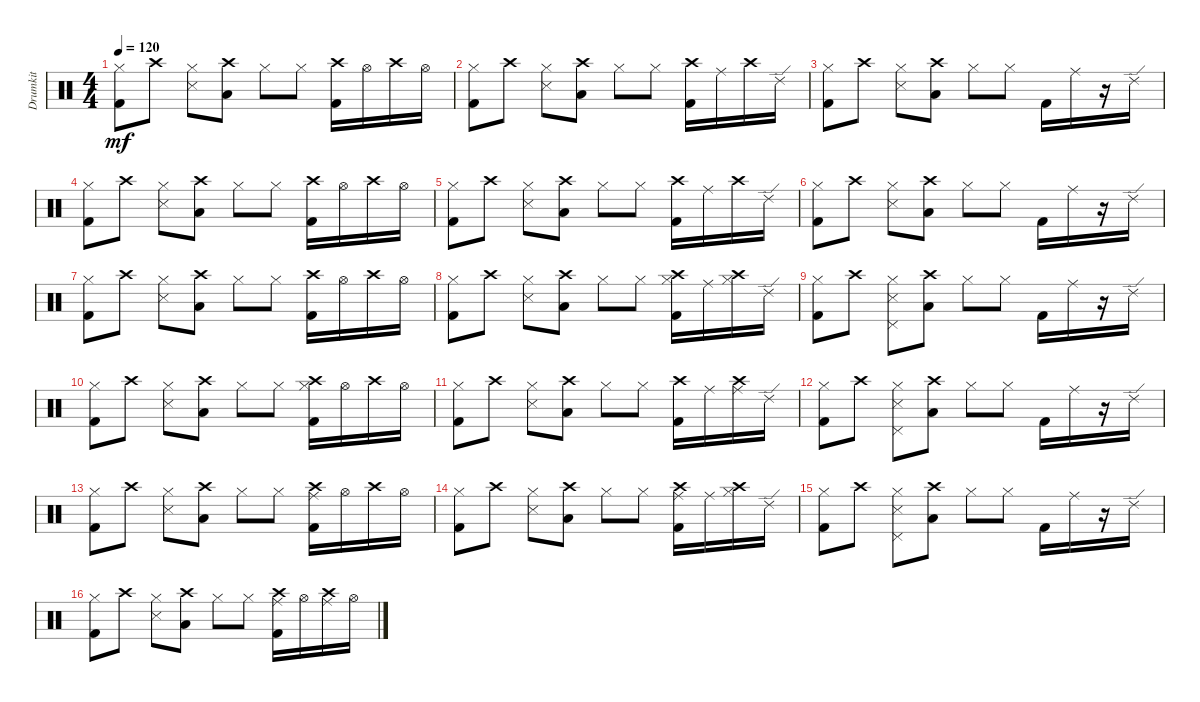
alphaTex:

\track ("Drumkit" "Drumkit") {instrument percussion}
\staff {score}
\articulation defaults
\ts (4 4)
\tempo 120
\clef neutral
\ks c
("Hi-Hat (closed)" "Kick (hit) 2").8{dy mf} "Crash high (hit)".8 ("Hi-Hat (closed)" "Snare (side stick) 3").8 ("Crash high (hit)" "Low Floor Tom (hit)").8 "Hi-Hat (closed)".8 "Hi-Hat (closed)".8 ("Crash high (hit)" "Kick (hit) 2").16 "Hi-Hat (open)".16 "Crash high (hit)".16 "Hi-Hat (open)".16 |
("Hi-Hat (closed)" "Kick (hit) 2").8 "Crash high (hit)".8 ("Hi-Hat (closed)" "Snare (side stick) 3").8 ("Crash high (hit)" "Low Floor Tom (hit)").8 "Hi-Hat (closed)".8 "Hi-Hat (closed)".8 ("Crash high (hit)" "Kick (hit) 2").16 "Ride (middle)".16 "Crash high (hit)".16 "Ride (edge) 2".16 |
("Hi-Hat (closed)" "Kick (hit) 2").8 "Crash high (hit)".8 ("Hi-Hat (closed)" "Snare (side stick) 3").8 ("Crash high (hit)" "Low Floor Tom (hit)").8 "Hi-Hat (closed)".8 "Hi-Hat (closed)".8 "Kick (hit) 2".16 "Ride (middle)".16 r.16 "Ride (edge) 2".16 |
("Hi-Hat (closed)" "Kick (hit) 2").8 "Crash high (hit)".8 ("Hi-Hat (closed)" "Snare (side stick) 3").8 ("Crash high (hit)" "Low Floor Tom (hit)").8 "Hi-Hat (closed)".8 "Hi-Hat (closed)".8 ("Crash high (hit)" "Kick (hit) 2").16 "Hi-Hat (open)".16 "Crash high (hit)".16 "Hi-Hat (open)".16 |
("Hi-Hat (closed)" "Kick (hit) 2").8 "Crash high (hit)".8 ("Hi-Hat (closed)" "Snare (side stick) 3").8 ("Crash high (hit)" "Low Floor Tom (hit)").8 "Hi-Hat (closed)".8 "Hi-Hat (closed)".8 ("Crash high (hit)" "Kick (hit) 2").16 "Ride (middle)".16 "Crash high (hit)".16 "Ride (edge) 2".16 |
("Hi-Hat (closed)" "Kick (hit) 2").8 "Crash high (hit)".8 ("Hi-Hat (closed)" "Snare (side stick) 3").8 ("Crash high (hit)" "Low Floor Tom (hit)").8 "Hi-Hat (closed)".8 "Hi-Hat (closed)".8 "Kick (hit) 2".16 "Ride (middle)".16 r.16 "Ride (edge) 2".16 |
("Hi-Hat (closed)" "Kick (hit) 2").8 "Crash high (hit)".8 ("Hi-Hat (closed)" "Snare (side stick) 3").8 ("Crash high (hit)" "Low Floor Tom (hit)").8 "Hi-Hat (closed)".8 "Hi-Hat (closed)".8 ("Crash high (hit)" "Kick (hit) 2").16 "Hi-Hat (open)".16 "Crash high (hit)".16 "Hi-Hat (open)".16 |
("Hi-Hat (closed)" "Kick (hit) 2").8 "Crash high (hit)".8 ("Hi-Hat (closed)" "Snare (side stick) 3").8 ("Crash high (hit)" "Low Floor Tom (hit)").8 "Hi-Hat (closed)".8 "Hi-Hat (closed)".8 ("Crash high (hit)" "Kick (hit) 2" "Hi-Hat (closed)").16 "Ride (middle)".16 ("Crash high (hit)" "Hi-Hat (closed)").16 "Ride (edge) 2".16 |
("Hi-Hat (closed)" "Kick (hit) 2").8 "Crash high (hit)".8 ("Hi-Hat (closed)" "Snare (side stick) 3" "Pedal Hi-Hat (hit)").8 ("Crash high (hit)" "Low Floor Tom (hit)").8 "Hi-Hat (closed)".8 "Hi-Hat (closed)".8 "Kick (hit) 2".16 "Ride (middle)".16 r.16 "Ride (edge) 2".16 |
("Hi-Hat (closed)" "Kick (hit) 2").8 "Crash high (hit)".8 ("Hi-Hat (closed)" "Snare (side stick) 3").8 ("Crash high (hit)" "Low Floor Tom (hit)").8 "Hi-Hat (closed)".8 "Hi-Hat (closed)".8 ("Crash high (hit)" "Kick (hit) 2" "Hi-Hat (closed)").16 "Hi-Hat (open)".16 "Crash high (hit)".16 "Hi-Hat (open)".16 |
("Hi-Hat (closed)" "Kick (hit) 2").8 "Crash high (hit)".8 ("Hi-Hat (closed)" "Snare (side stick) 3").8 ("Crash high (hit)" "Low Floor Tom (hit)").8 "Hi-Hat (closed)".8 "Hi-Hat (closed)".8 ("Crash high (hit)" "Kick (hit) 2").16 "Ride (middle)".16 ("Crash high (hit)" "Ride (middle)").16 "Ride (edge) 2".16 |
("Hi-Hat (closed)" "Kick (hit) 2").8 "Crash high (hit)".8 ("Hi-Hat (closed)" "Snare (side stick) 3" "Pedal Hi-Hat (hit)").8 ("Crash high (hit)" "Low Floor Tom (hit)").8 "Hi-Hat (closed)".8 "Hi-Hat (closed)".8 "Kick (hit) 2".16 "Ride (middle)".16 r.16 "Ride (edge) 2".16 |
("Hi-Hat (closed)" "Kick (hit) 2").8 "Crash high (hit)".8 ("Hi-Hat (closed)" "Snare (side stick) 3").8 ("Crash high (hit)" "Low Floor Tom (hit)").8 "Hi-Hat (closed)".8 "Hi-Hat (closed)".8 ("Crash high (hit)" "Kick (hit) 2" "Ride (middle)").16 "Hi-Hat (open)".16 "Crash high (hit)".16 "Hi-Hat (open)".16 |
("Hi-Hat (closed)" "Kick (hit) 2").8 "Crash high (hit)".8 ("Hi-Hat (closed)" "Snare (side stick) 3").8 ("Crash high (hit)" "Low Floor Tom (hit)").8 "Hi-Hat (closed)".8 "Hi-Hat (closed)".8 ("Crash high (hit)" "Kick (hit) 2" "Ride (middle)").16 "Ride (middle)".16 ("Crash high (hit)" "Hi-Hat (closed)").16 "Ride (edge) 2".16 |
("Hi-Hat (closed)" "Kick (hit) 2").8 "Crash high (hit)".8 ("Hi-Hat (closed)" "Snare (side stick) 3" "Pedal Hi-Hat (hit)").8 ("Crash high (hit)" "Low Floor Tom (hit)").8 "Hi-Hat (closed)".8 "Hi-Hat (closed)".8 "Kick (hit) 2".16 "Ride (middle)".16 r.16 "Ride (edge) 2".16 |
("Hi-Hat (closed)" "Kick (hit) 2").8 "Crash high (hit)".8 ("Hi-Hat (closed)" "Snare (side stick) 3").8 ("Crash high (hit)" "Low Floor Tom (hit)").8 "Hi-Hat (closed)".8 "Hi-Hat (closed)".8 ("Crash high (hit)" "Kick (hit) 2" "Ride (middle)").16 "Hi-Hat (open)".16 ("Crash high (hit)" "Ride (middle)").16 "Hi-Hat (open)".16
